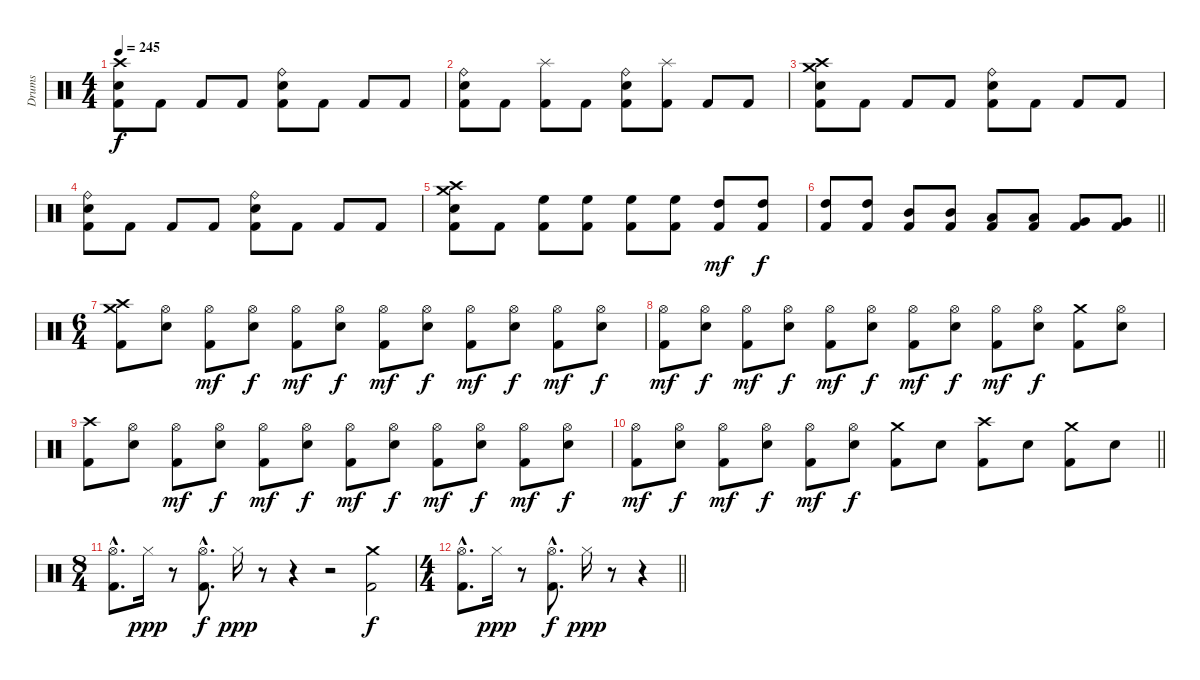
\track ("Drums" "Drums") {instrument percussion}
\staff {score}
\articulation defaults
\ts (4 4)
\tempo 245
\clef neutral
\ks c
("Crash high (hit)" "Electric Snare (hit)" "Kick (hit) 2").8{dy f} "Kick (hit) 2".8 "Kick (hit) 2".8 "Kick (hit) 2".8 ("Ride (bell)" "Electric Snare (hit)" "Kick (hit) 2").8 "Kick (hit) 2".8 "Kick (hit) 2".8 "Kick (hit) 2".8 |
("Ride (bell)" "Electric Snare (hit)" "Kick (hit) 2").8 "Kick (hit) 2".8 ("Splash (hit)" "Kick (hit) 2").8 "Kick (hit) 2".8 ("Ride (bell)" "Electric Snare (hit)" "Kick (hit) 2").8 ("Splash (hit)" "Kick (hit) 2").8 "Kick (hit) 2".8 "Kick (hit) 2".8 |
("Crash high (hit)" "Crash medium (hit)" "Electric Snare (hit)" "Kick (hit) 2").8 "Kick (hit) 2".8 "Kick (hit) 2".8 "Kick (hit) 2".8 ("Ride (bell)" "Electric Snare (hit)" "Kick (hit) 2").8 "Kick (hit) 2".8 "Kick (hit) 2".8 "Kick (hit) 2".8 |
("Ride (bell)" "Electric Snare (hit)" "Kick (hit) 2").8 "Kick (hit) 2".8 "Kick (hit) 2".8 "Kick (hit) 2".8 ("Ride (bell)" "Electric Snare (hit)" "Kick (hit) 2").8 "Kick (hit) 2".8 "Kick (hit) 2".8 "Kick (hit) 2".8 |
("Crash high (hit)" "Crash medium (hit)" "Electric Snare (hit)" "Kick (hit) 2").8 "Kick (hit) 2".8 ("High Floor Tom (hit)" "Kick (hit) 2").8 ("High Floor Tom (hit)" "Kick (hit) 2").8 ("High Floor Tom (hit)" "Kick (hit) 2").8 ("High Floor Tom (hit)" "Kick (hit) 2").8 ("High Tom (hit)" "Kick (hit) 2").8{dy mf} ("High Tom (hit)" "Kick (hit) 2").8{dy f} |
\barLineRight lightlight
("High Tom (hit)" "Kick (hit) 2").8 ("High Tom (hit)" "Kick (hit) 2").8 ("Mid Tom (hit)" "Kick (hit) 2").8 ("Mid Tom (hit)" "Kick (hit) 2").8 ("Low Tom (hit)" "Kick (hit) 2").8 ("Low Tom (hit)" "Kick (hit) 2").8 ("Very Low Tom (hit)" "Kick (hit) 2").8 ("Very Low Tom (hit)" "Kick (hit) 2").8 |
\ts (6 4)
("Crash high (hit)" "Crash medium (hit)" "Kick (hit) 2").8 ("Hi-Hat (open)" "Electric Snare (hit)").8 ("Hi-Hat (open)" "Kick (hit) 2").8{dy mf} ("Hi-Hat (open)" "Electric Snare (hit)").8{dy f} ("Hi-Hat (open)" "Kick (hit) 2").8{dy mf} ("Hi-Hat (open)" "Electric Snare (hit)").8{dy f} ("Hi-Hat (open)" "Kick (hit) 2").8{dy mf} ("Hi-Hat (open)" "Electric Snare (hit)").8{dy f} ("Hi-Hat (open)" "Kick (hit) 2").8{dy mf} ("Hi-Hat (open)" "Electric Snare (hit)").8{dy f} ("Hi-Hat (open)" "Kick (hit) 2").8{dy mf} ("Hi-Hat (open)" "Electric Snare (hit)").8{dy f} |
("Hi-Hat (open)" "Kick (hit) 2").8{dy mf} ("Hi-Hat (open)" "Electric Snare (hit)").8{dy f} ("Hi-Hat (open)" "Kick (hit) 2").8{dy mf} ("Hi-Hat (open)" "Electric Snare (hit)").8{dy f} ("Hi-Hat (open)" "Kick (hit) 2").8{dy mf} ("Hi-Hat (open)" "Electric Snare (hit)").8{dy f} ("Hi-Hat (open)" "Kick (hit) 2").8{dy mf} ("Hi-Hat (open)" "Electric Snare (hit)").8{dy f} ("Hi-Hat (open)" "Kick (hit) 2").8{dy mf} ("Hi-Hat (open)" "Electric Snare (hit)").8{dy f} ("Crash medium (hit)" "Kick (hit) 2").8 ("Hi-Hat (open)" "Electric Snare (hit)").8 |
("Crash high (hit)" "Kick (hit) 2").8 ("Hi-Hat (open)" "Electric Snare (hit)").8 ("Hi-Hat (open)" "Kick (hit) 2").8{dy mf} ("Hi-Hat (open)" "Electric Snare (hit)").8{dy f} ("Hi-Hat (open)" "Kick (hit) 2").8{dy mf} ("Hi-Hat (open)" "Electric Snare (hit)").8{dy f} ("Hi-Hat (open)" "Kick (hit) 2").8{dy mf} ("Hi-Hat (open)" "Electric Snare (hit)").8{dy f} ("Hi-Hat (open)" "Kick (hit) 2").8{dy mf} ("Hi-Hat (open)" "Electric Snare (hit)").8{dy f} ("Hi-Hat (open)" "Kick (hit) 2").8{dy mf} ("Hi-Hat (open)" "Electric Snare (hit)").8{dy f} |
\barLineRight lightlight
("Hi-Hat (open)" "Kick (hit) 2").8{dy mf} ("Hi-Hat (open)" "Electric Snare (hit)").8{dy f} ("Hi-Hat (open)" "Kick (hit) 2").8{dy mf} ("Hi-Hat (open)" "Electric Snare (hit)").8{dy f} ("Hi-Hat (open)" "Kick (hit) 2").8{dy mf} ("Hi-Hat (open)" "Electric Snare (hit)").8{dy f} ("Crash medium (hit)" "Kick (hit) 2").8 "Electric Snare (hit)".8 ("Crash high (hit)" "Kick (hit) 2").8 "Electric Snare (hit)".8 ("Crash medium (hit)" "Kick (hit) 2").8 "Electric Snare (hit)".8 |
\ts (8 4)
("Hi-Hat (open)"{hac} "Kick (hit) 2"{hac}).8{d} "Hi-Hat (closed)".16{dy ppp} r.8 ("Hi-Hat (open)"{hac} "Kick (hit) 2"{hac}).8{d dy f} "Hi-Hat (closed)".16{dy ppp} r.8 r.4 r.2 ("Crash medium (hit)" "Kick (hit) 2").2{dy f} |
\ts (4 4)
\barLineRight lightlight
("Hi-Hat (open)"{hac} "Kick (hit) 2"{hac}).8{d} "Hi-Hat (closed)".16{dy ppp} r.8 ("Hi-Hat (open)"{hac} "Kick (hit) 2"{hac}).8{d dy f} "Hi-Hat (closed)".16{dy ppp} r.8 r.4
